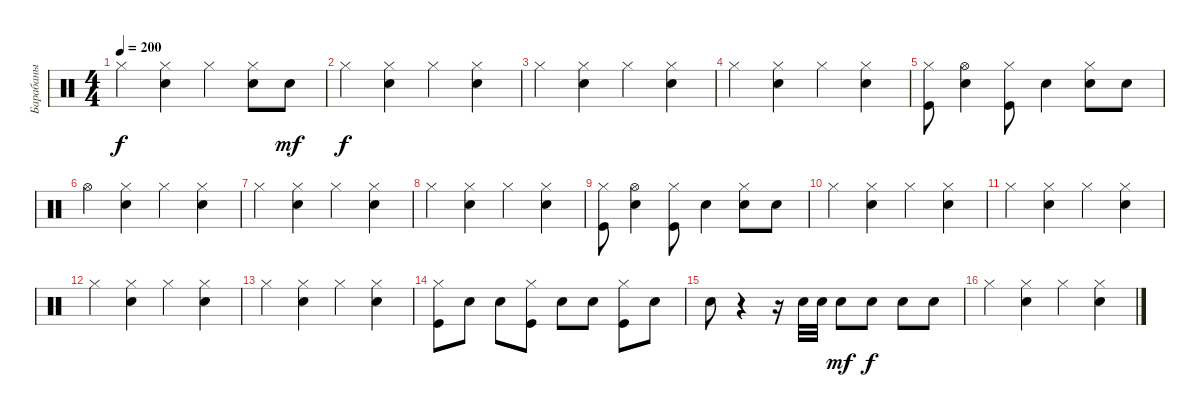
\track ("Барабаны" "Барабаны") {instrument percussion}
\staff {score}
\articulation defaults
\ts (4 4)
\tempo 200
\clef neutral
\ks c "Hi-Hat (closed)".4{dy f}
("Snare (hit) 2" "Hi-Hat (closed)").4 "Hi-Hat (closed)".4 ("Electric Snare (hit)" "Hi-Hat (closed)").8 "Electric Snare (hit)".8{dy mf} |
"Hi-Hat (closed)".4{dy f} ("Snare (hit) 2" "Hi-Hat (closed)").4 "Hi-Hat (closed)".4 ("Snare (hit) 2" "Hi-Hat (closed)").4 |
"Hi-Hat (closed)".4 ("Snare (hit) 2" "Hi-Hat (closed)").4 "Hi-Hat (closed)".4 ("Snare (hit) 2" "Hi-Hat (closed)").4 |
"Hi-Hat (closed)".4 ("Snare (hit) 2" "Hi-Hat (closed)").4 "Hi-Hat (closed)".4 ("Snare (hit) 2" "Hi-Hat (closed)").4 |
("Kick (hit)" "Hi-Hat (closed)").8 ("Hi-Hat (open)" "Electric Snare (hit)").4 ("Kick (hit)" "Hi-Hat (closed)").8 "Electric Snare (hit)".4 ("Electric Snare (hit)" "Hi-Hat (closed)").8 "Electric Snare (hit)".8 |
"Hi-Hat (open)".4 ("Snare (hit) 2" "Hi-Hat (closed)").4 "Hi-Hat (closed)".4 ("Snare (hit) 2" "Hi-Hat (closed)").4 |
"Hi-Hat (closed)".4 ("Snare (hit) 2" "Hi-Hat (closed)").4 "Hi-Hat (closed)".4 ("Snare (hit) 2" "Hi-Hat (closed)").4 |
"Hi-Hat (closed)".4 ("Snare (hit) 2" "Hi-Hat (closed)").4 "Hi-Hat (closed)".4 ("Snare (hit) 2" "Hi-Hat (closed)").4 |
("Kick (hit)" "Hi-Hat (closed)").8 ("Hi-Hat (open)" "Electric Snare (hit)").4 ("Kick (hit)" "Hi-Hat (closed)").8 "Electric Snare (hit)".4 ("Electric Snare (hit)" "Hi-Hat (closed)").8 "Electric Snare (hit)".8 |
"Hi-Hat (closed)".4 ("Snare (hit) 2" "Hi-Hat (closed)").4 "Hi-Hat (closed)".4 ("Snare (hit) 2" "Hi-Hat (closed)").4 |
"Hi-Hat (closed)".4 ("Snare (hit) 2" "Hi-Hat (closed)").4 "Hi-Hat (closed)".4 ("Snare (hit) 2" "Hi-Hat (closed)").4 |
"Hi-Hat (closed)".4 ("Snare (hit) 2" "Hi-Hat (closed)").4 "Hi-Hat (closed)".4 ("Snare (hit) 2" "Hi-Hat (closed)").4 |
"Hi-Hat (closed)".4 ("Snare (hit) 2" "Hi-Hat (closed)").4 "Hi-Hat (closed)".4 ("Snare (hit) 2" "Hi-Hat (closed)").4 |
("Hi-Hat (closed)" "Kick (hit)").8 "Electric Snare (hit)".8 "Electric Snare (hit)".8 ("Hi-Hat (closed)" "Kick (hit)").8 "Electric Snare (hit)".8 "Electric Snare (hit)".8 ("Hi-Hat (closed)" "Kick (hit)").8 "Electric Snare (hit)".8 |
"Electric Snare (hit)".8 r.4 r.16 "Electric Snare (hit)".32 "Electric Snare (hit)".32 "Electric Snare (hit)".8{dy mf} "Electric Snare (hit)".8{dy f} "Electric Snare (hit)".8 "Electric Snare (hit)".8 |
"Hi-Hat (closed)".4 ("Snare (hit) 2" "Hi-Hat (closed)").4 "Hi-Hat (closed)".4 ("Snare (hit) 2" "Hi-Hat (closed)").4
